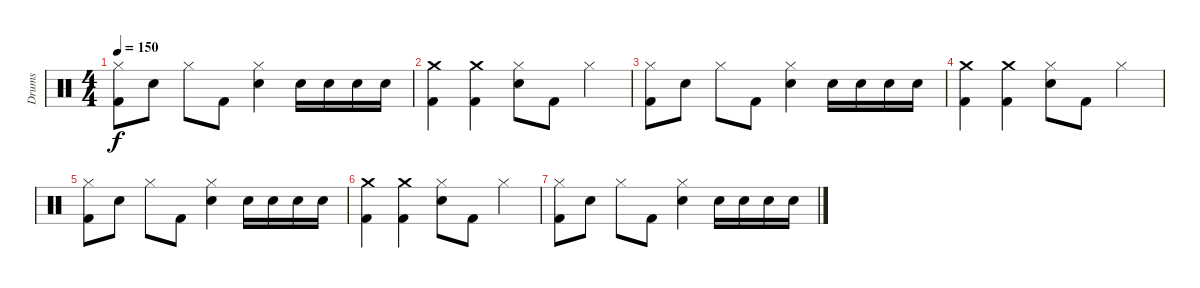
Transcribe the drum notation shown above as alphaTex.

\track ("Drums" "Drums") {instrument percussion}
\staff {score}
\articulation defaults
\ts (4 4)
\tempo 150
\clef neutral
\ks c
("Hi-Hat (closed)" "Kick (hit) 2").8{dy f} "Snare (hit) 2".8 "Hi-Hat (closed)".8 "Kick (hit) 2".8 ("Hi-Hat (closed)" "Snare (hit) 2").4 "Snare (hit) 2".16 "Snare (hit) 2".16 "Snare (hit) 2".16 "Snare (hit) 2".16 |
("Crash medium (hit)" "Kick (hit) 2").4 ("Crash medium (hit)" "Kick (hit) 2").4 ("Hi-Hat (closed)" "Snare (hit) 2").8 "Kick (hit) 2".8 "Hi-Hat (closed)".4 |
("Hi-Hat (closed)" "Kick (hit) 2").8 "Snare (hit) 2".8 "Hi-Hat (closed)".8 "Kick (hit) 2".8 ("Hi-Hat (closed)" "Snare (hit) 2").4 "Snare (hit) 2".16 "Snare (hit) 2".16 "Snare (hit) 2".16 "Snare (hit) 2".16 |
("Crash medium (hit)" "Kick (hit) 2").4 ("Crash medium (hit)" "Kick (hit) 2").4 ("Hi-Hat (closed)" "Snare (hit) 2").8 "Kick (hit) 2".8 "Hi-Hat (closed)".4 |
("Hi-Hat (closed)" "Kick (hit) 2").8 "Snare (hit) 2".8 "Hi-Hat (closed)".8 "Kick (hit) 2".8 ("Hi-Hat (closed)" "Snare (hit) 2").4 "Snare (hit) 2".16 "Snare (hit) 2".16 "Snare (hit) 2".16 "Snare (hit) 2".16 |
("Crash medium (hit)" "Kick (hit) 2").4 ("Crash medium (hit)" "Kick (hit) 2").4 ("Hi-Hat (closed)" "Snare (hit) 2").8 "Kick (hit) 2".8 "Hi-Hat (closed)".4 |
("Hi-Hat (closed)" "Kick (hit) 2").8 "Snare (hit) 2".8 "Hi-Hat (closed)".8 "Kick (hit) 2".8 ("Hi-Hat (closed)" "Snare (hit) 2").4 "Snare (hit) 2".16 "Snare (hit) 2".16 "Snare (hit) 2".16 "Snare (hit) 2".16
